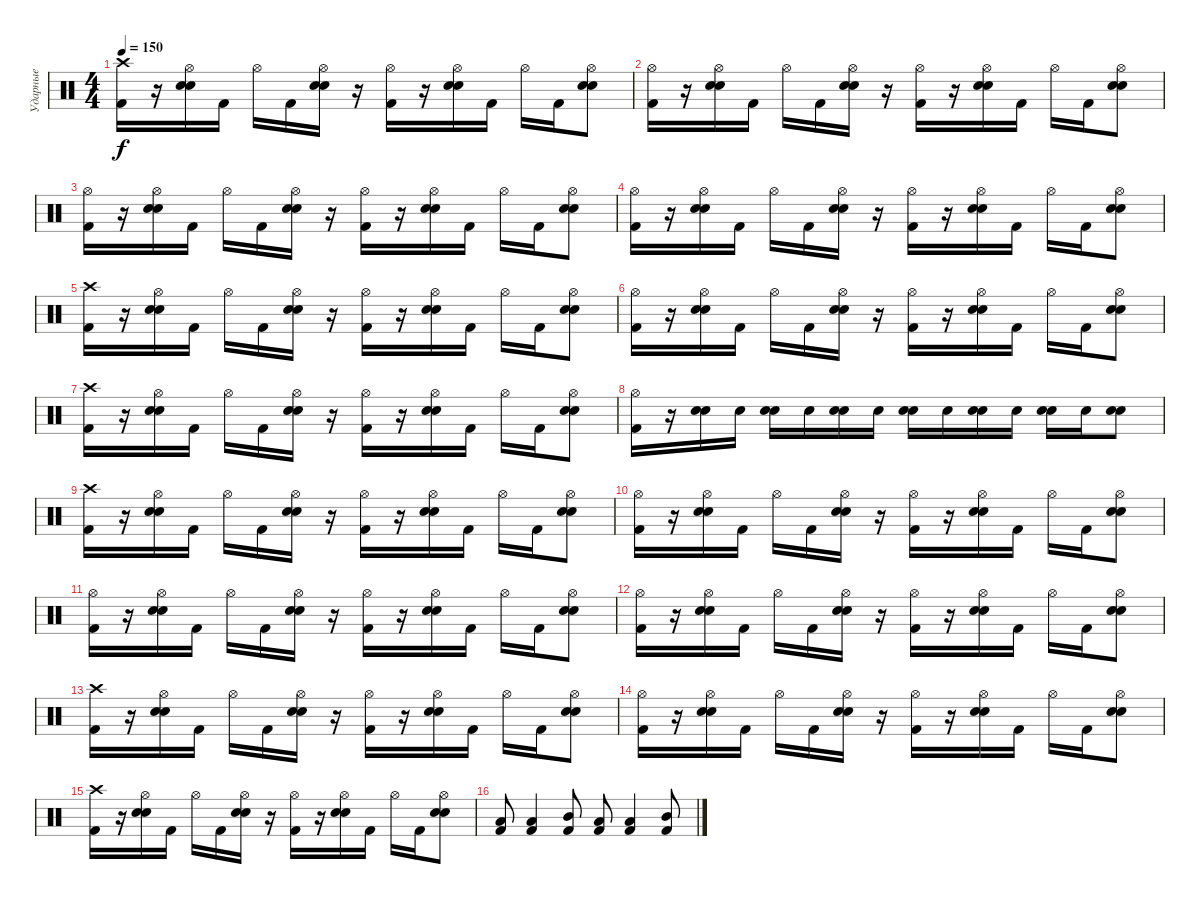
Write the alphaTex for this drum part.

\track ("Ударные" "Ударные") {instrument percussion}
\staff {score}
\articulation defaults
\ts (4 4)
\tempo 150
\clef neutral
\ks c
("Crash high (hit)" "Kick (hit) 2").16{dy f} r.16 ("Hi-Hat (open)" "Electric Snare (hit)" "Snare (hit) 2").16 "Kick (hit) 2".16 "Hi-Hat (open)".16 "Kick (hit) 2".16 ("Hi-Hat (open)" "Electric Snare (hit)" "Snare (hit) 2").16 r.16 ("Hi-Hat (open)" "Kick (hit) 2").16 r.16 ("Hi-Hat (open)" "Electric Snare (hit)" "Snare (hit) 2").16 "Kick (hit) 2".16 "Hi-Hat (open)".16 "Kick (hit) 2".16 ("Hi-Hat (open)" "Electric Snare (hit)" "Snare (hit) 2").8 |
("Hi-Hat (open)" "Kick (hit) 2").16 r.16 ("Hi-Hat (open)" "Electric Snare (hit)" "Snare (hit) 2").16 "Kick (hit) 2".16 "Hi-Hat (open)".16 "Kick (hit) 2".16 ("Hi-Hat (open)" "Electric Snare (hit)" "Snare (hit) 2").16 r.16 ("Hi-Hat (open)" "Kick (hit) 2").16 r.16 ("Hi-Hat (open)" "Electric Snare (hit)" "Snare (hit) 2").16 "Kick (hit) 2".16 "Hi-Hat (open)".16 "Kick (hit) 2".16 ("Hi-Hat (open)" "Electric Snare (hit)" "Snare (hit) 2").8 |
("Hi-Hat (open)" "Kick (hit) 2").16 r.16 ("Hi-Hat (open)" "Electric Snare (hit)" "Snare (hit) 2").16 "Kick (hit) 2".16 "Hi-Hat (open)".16 "Kick (hit) 2".16 ("Hi-Hat (open)" "Electric Snare (hit)" "Snare (hit) 2").16 r.16 ("Hi-Hat (open)" "Kick (hit) 2").16 r.16 ("Hi-Hat (open)" "Electric Snare (hit)" "Snare (hit) 2").16 "Kick (hit) 2".16 "Hi-Hat (open)".16 "Kick (hit) 2".16 ("Hi-Hat (open)" "Electric Snare (hit)" "Snare (hit) 2").8 |
("Hi-Hat (open)" "Kick (hit) 2").16 r.16 ("Hi-Hat (open)" "Electric Snare (hit)" "Snare (hit) 2").16 "Kick (hit) 2".16 "Hi-Hat (open)".16 "Kick (hit) 2".16 ("Hi-Hat (open)" "Electric Snare (hit)" "Snare (hit) 2").16 r.16 ("Hi-Hat (open)" "Kick (hit) 2").16 r.16 ("Hi-Hat (open)" "Electric Snare (hit)" "Snare (hit) 2").16 "Kick (hit) 2".16 "Hi-Hat (open)".16 "Kick (hit) 2".16 ("Hi-Hat (open)" "Electric Snare (hit)" "Snare (hit) 2").8 |
("Crash high (hit)" "Kick (hit) 2").16 r.16 ("Hi-Hat (open)" "Electric Snare (hit)" "Snare (hit) 2").16 "Kick (hit) 2".16 "Hi-Hat (open)".16 "Kick (hit) 2".16 ("Hi-Hat (open)" "Electric Snare (hit)" "Snare (hit) 2").16 r.16 ("Hi-Hat (open)" "Kick (hit) 2").16 r.16 ("Hi-Hat (open)" "Electric Snare (hit)" "Snare (hit) 2").16 "Kick (hit) 2".16 "Hi-Hat (open)".16 "Kick (hit) 2".16 ("Hi-Hat (open)" "Electric Snare (hit)" "Snare (hit) 2").8 |
("Hi-Hat (open)" "Kick (hit) 2").16 r.16 ("Hi-Hat (open)" "Electric Snare (hit)" "Snare (hit) 2").16 "Kick (hit) 2".16 "Hi-Hat (open)".16 "Kick (hit) 2".16 ("Hi-Hat (open)" "Electric Snare (hit)" "Snare (hit) 2").16 r.16 ("Hi-Hat (open)" "Kick (hit) 2").16 r.16 ("Hi-Hat (open)" "Electric Snare (hit)" "Snare (hit) 2").16 "Kick (hit) 2".16 "Hi-Hat (open)".16 "Kick (hit) 2".16 ("Hi-Hat (open)" "Electric Snare (hit)" "Snare (hit) 2").8 |
("Crash high (hit)" "Kick (hit) 2").16 r.16 ("Hi-Hat (open)" "Electric Snare (hit)" "Snare (hit) 2").16 "Kick (hit) 2".16 "Hi-Hat (open)".16 "Kick (hit) 2".16 ("Hi-Hat (open)" "Electric Snare (hit)" "Snare (hit) 2").16 r.16 ("Hi-Hat (open)" "Kick (hit) 2").16 r.16 ("Hi-Hat (open)" "Electric Snare (hit)" "Snare (hit) 2").16 "Kick (hit) 2".16 "Hi-Hat (open)".16 "Kick (hit) 2".16 ("Hi-Hat (open)" "Electric Snare (hit)" "Snare (hit) 2").8 |
("Hi-Hat (open)" "Kick (hit) 2").16 r.16 ("Electric Snare (hit)" "Snare (hit) 2").16 "Electric Snare (hit)".16 ("Electric Snare (hit)" "Snare (hit) 2").16 "Electric Snare (hit)".16 ("Electric Snare (hit)" "Snare (hit) 2").16 "Electric Snare (hit)".16 ("Electric Snare (hit)" "Snare (hit) 2").16 "Electric Snare (hit)".16 ("Electric Snare (hit)" "Snare (hit) 2").16 "Electric Snare (hit)".16 ("Electric Snare (hit)" "Snare (hit) 2").16 "Electric Snare (hit)".16 ("Electric Snare (hit)" "Snare (hit) 2").8 |
("Crash high (hit)" "Kick (hit) 2").16 r.16 ("Hi-Hat (open)" "Electric Snare (hit)" "Snare (hit) 2").16 "Kick (hit) 2".16 "Hi-Hat (open)".16 "Kick (hit) 2".16 ("Hi-Hat (open)" "Electric Snare (hit)" "Snare (hit) 2").16 r.16 ("Hi-Hat (open)" "Kick (hit) 2").16 r.16 ("Hi-Hat (open)" "Electric Snare (hit)" "Snare (hit) 2").16 "Kick (hit) 2".16 "Hi-Hat (open)".16 "Kick (hit) 2".16 ("Hi-Hat (open)" "Electric Snare (hit)" "Snare (hit) 2").8 |
("Hi-Hat (open)" "Kick (hit) 2").16 r.16 ("Hi-Hat (open)" "Electric Snare (hit)" "Snare (hit) 2").16 "Kick (hit) 2".16 "Hi-Hat (open)".16 "Kick (hit) 2".16 ("Hi-Hat (open)" "Electric Snare (hit)" "Snare (hit) 2").16 r.16 ("Hi-Hat (open)" "Kick (hit) 2").16 r.16 ("Hi-Hat (open)" "Electric Snare (hit)" "Snare (hit) 2").16 "Kick (hit) 2".16 "Hi-Hat (open)".16 "Kick (hit) 2".16 ("Hi-Hat (open)" "Electric Snare (hit)" "Snare (hit) 2").8 |
("Hi-Hat (open)" "Kick (hit) 2").16 r.16 ("Hi-Hat (open)" "Electric Snare (hit)" "Snare (hit) 2").16 "Kick (hit) 2".16 "Hi-Hat (open)".16 "Kick (hit) 2".16 ("Hi-Hat (open)" "Electric Snare (hit)" "Snare (hit) 2").16 r.16 ("Hi-Hat (open)" "Kick (hit) 2").16 r.16 ("Hi-Hat (open)" "Electric Snare (hit)" "Snare (hit) 2").16 "Kick (hit) 2".16 "Hi-Hat (open)".16 "Kick (hit) 2".16 ("Hi-Hat (open)" "Electric Snare (hit)" "Snare (hit) 2").8 |
("Hi-Hat (open)" "Kick (hit) 2").16 r.16 ("Hi-Hat (open)" "Electric Snare (hit)" "Snare (hit) 2").16 "Kick (hit) 2".16 "Hi-Hat (open)".16 "Kick (hit) 2".16 ("Hi-Hat (open)" "Electric Snare (hit)" "Snare (hit) 2").16 r.16 ("Hi-Hat (open)" "Kick (hit) 2").16 r.16 ("Hi-Hat (open)" "Electric Snare (hit)" "Snare (hit) 2").16 "Kick (hit) 2".16 "Hi-Hat (open)".16 "Kick (hit) 2".16 ("Hi-Hat (open)" "Electric Snare (hit)" "Snare (hit) 2").8 |
("Crash high (hit)" "Kick (hit) 2").16 r.16 ("Hi-Hat (open)" "Electric Snare (hit)" "Snare (hit) 2").16 "Kick (hit) 2".16 "Hi-Hat (open)".16 "Kick (hit) 2".16 ("Hi-Hat (open)" "Electric Snare (hit)" "Snare (hit) 2").16 r.16 ("Hi-Hat (open)" "Kick (hit) 2").16 r.16 ("Hi-Hat (open)" "Electric Snare (hit)" "Snare (hit) 2").16 "Kick (hit) 2".16 "Hi-Hat (open)".16 "Kick (hit) 2".16 ("Hi-Hat (open)" "Electric Snare (hit)" "Snare (hit) 2").8 |
("Hi-Hat (open)" "Kick (hit) 2").16 r.16 ("Hi-Hat (open)" "Electric Snare (hit)" "Snare (hit) 2").16 "Kick (hit) 2".16 "Hi-Hat (open)".16 "Kick (hit) 2".16 ("Hi-Hat (open)" "Electric Snare (hit)" "Snare (hit) 2").16 r.16 ("Hi-Hat (open)" "Kick (hit) 2").16 r.16 ("Hi-Hat (open)" "Electric Snare (hit)" "Snare (hit) 2").16 "Kick (hit) 2".16 "Hi-Hat (open)".16 "Kick (hit) 2".16 ("Hi-Hat (open)" "Electric Snare (hit)" "Snare (hit) 2").8 |
("Crash high (hit)" "Kick (hit) 2").16 r.16 ("Hi-Hat (open)" "Electric Snare (hit)" "Snare (hit) 2").16 "Kick (hit) 2".16 "Hi-Hat (open)".16 "Kick (hit) 2".16 ("Hi-Hat (open)" "Electric Snare (hit)" "Snare (hit) 2").16 r.16 ("Hi-Hat (open)" "Kick (hit) 2").16 r.16 ("Hi-Hat (open)" "Electric Snare (hit)" "Snare (hit) 2").16 "Kick (hit) 2".16 "Hi-Hat (open)".16 "Kick (hit) 2".16 ("Hi-Hat (open)" "Electric Snare (hit)" "Snare (hit) 2").8 |
("Low Tom (hit)" "Kick (hit) 2").8 ("Low Tom (hit)" "Kick (hit) 2").4 ("Mid Tom (hit)" "Kick (hit) 2").8 ("Low Tom (hit)" "Kick (hit) 2").8 ("Low Tom (hit)" "Kick (hit) 2").4 ("Mid Tom (hit)" "Kick (hit) 2").8
